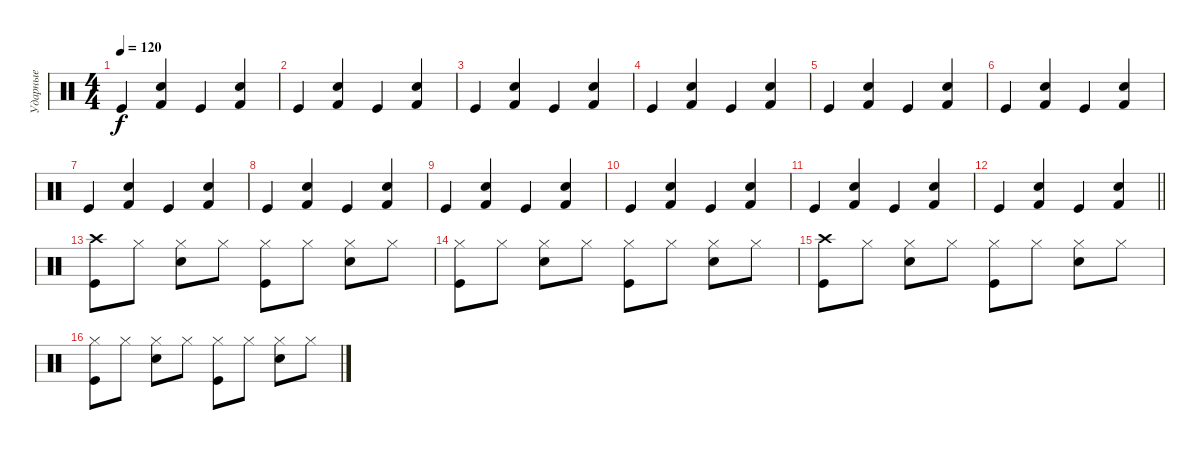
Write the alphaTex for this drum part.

\track ("Ударные" "Ударные") {instrument percussion}
\staff {score}
\articulation defaults
\ts (4 4)
\tempo 120
\clef neutral
\ks c "Kick (hit)".4{dy f}
("Hand Clap (hit)" "Kick (hit) 2").4 "Kick (hit)".4 ("Hand Clap (hit)" "Kick (hit) 2").4 |
"Kick (hit)".4 ("Hand Clap (hit)" "Kick (hit) 2").4 "Kick (hit)".4 ("Hand Clap (hit)" "Kick (hit) 2").4 |
"Kick (hit)".4 ("Hand Clap (hit)" "Kick (hit) 2").4 "Kick (hit)".4 ("Hand Clap (hit)" "Kick (hit) 2").4 |
"Kick (hit)".4 ("Hand Clap (hit)" "Kick (hit) 2").4 "Kick (hit)".4 ("Hand Clap (hit)" "Kick (hit) 2").4 |
"Kick (hit)".4 ("Hand Clap (hit)" "Kick (hit) 2").4 "Kick (hit)".4 ("Hand Clap (hit)" "Kick (hit) 2").4 |
"Kick (hit)".4 ("Hand Clap (hit)" "Kick (hit) 2").4 "Kick (hit)".4 ("Hand Clap (hit)" "Kick (hit) 2").4 |
"Kick (hit)".4 ("Hand Clap (hit)" "Kick (hit) 2").4 "Kick (hit)".4 ("Hand Clap (hit)" "Kick (hit) 2").4 |
"Kick (hit)".4 ("Hand Clap (hit)" "Kick (hit) 2").4 "Kick (hit)".4 ("Hand Clap (hit)" "Kick (hit) 2").4 |
"Kick (hit)".4 ("Hand Clap (hit)" "Kick (hit) 2").4 "Kick (hit)".4 ("Hand Clap (hit)" "Kick (hit) 2").4 |
"Kick (hit)".4 ("Hand Clap (hit)" "Kick (hit) 2").4 "Kick (hit)".4 ("Hand Clap (hit)" "Kick (hit) 2").4 |
"Kick (hit)".4 ("Hand Clap (hit)" "Kick (hit) 2").4 "Kick (hit)".4 ("Hand Clap (hit)" "Kick (hit) 2").4 |
\barLineRight lightlight "Kick (hit)".4
("Hand Clap (hit)" "Kick (hit) 2").4 "Kick (hit)".4 ("Hand Clap (hit)" "Kick (hit) 2").4 |
("Crash high (hit)" "Kick (hit)").8 "Hi-Hat (closed)".8 ("Hi-Hat (closed)" "Electric Snare (hit)").8 "Hi-Hat (closed)".8 ("Hi-Hat (closed)" "Kick (hit)").8 "Hi-Hat (closed)".8 ("Hi-Hat (closed)" "Electric Snare (hit)").8 "Hi-Hat (closed)".8 |
("Hi-Hat (closed)" "Kick (hit)").8 "Hi-Hat (closed)".8 ("Hi-Hat (closed)" "Electric Snare (hit)").8 "Hi-Hat (closed)".8 ("Hi-Hat (closed)" "Kick (hit)").8 "Hi-Hat (closed)".8 ("Hi-Hat (closed)" "Electric Snare (hit)").8 "Hi-Hat (closed)".8 |
("Crash high (hit)" "Kick (hit)").8 "Hi-Hat (closed)".8 ("Hi-Hat (closed)" "Electric Snare (hit)").8 "Hi-Hat (closed)".8 ("Hi-Hat (closed)" "Kick (hit)").8 "Hi-Hat (closed)".8 ("Hi-Hat (closed)" "Electric Snare (hit)").8 "Hi-Hat (closed)".8 |
("Hi-Hat (closed)" "Kick (hit)").8 "Hi-Hat (closed)".8 ("Hi-Hat (closed)" "Electric Snare (hit)").8 "Hi-Hat (closed)".8 ("Hi-Hat (closed)" "Kick (hit)").8 "Hi-Hat (closed)".8 ("Hi-Hat (closed)" "Electric Snare (hit)").8 "Hi-Hat (closed)".8
